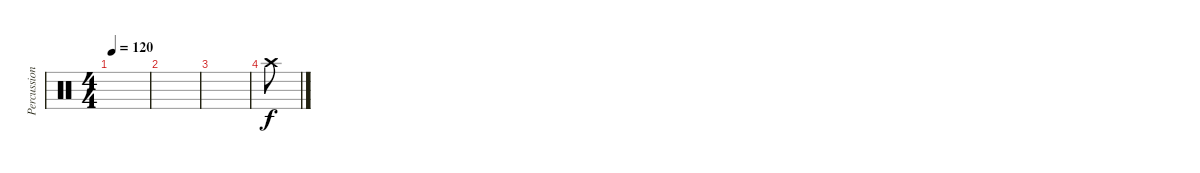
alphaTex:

\track ("Percussion" "Percussion") {instrument percussion}
\staff {score}
\articulation defaults
\ts (4 4)
\tempo 120
\clef neutral
\ks c
|
|
|
"Crash high (hit)".8
